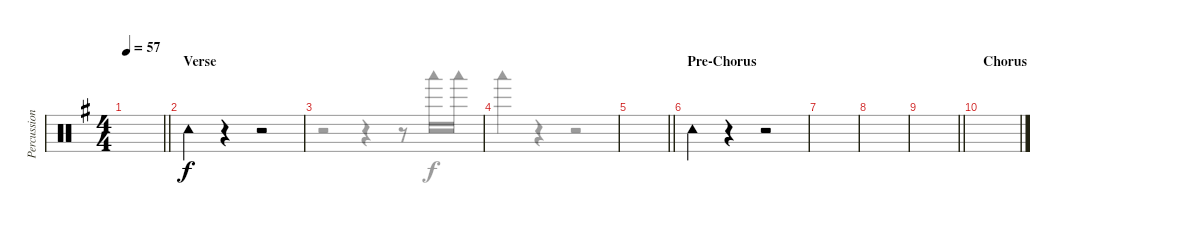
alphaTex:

\track ("Percussion 2" "Percussion") {instrument percussion}
\staff {score}
\articulation defaults
\voice
\ts (4 4)
\tempo 57
\clef neutral
\barLineRight lightlight
\ks g
|
\section ("" "Verse")
"Tambourine (hit)".4 r.4 r.2 |
|
|
\barLineRight lightlight
|
\section ("" "Pre-Chorus")
"Tambourine (hit)".4 r.4 r.2 |
|
|
\barLineRight lightlight
|
\section ("" "Chorus")
|
|
|
|
|
|
\voice
\clef neutral
\ottava regular
\simile none
\barLineRight lightlight
\ks g
|
|
r.2 r.4 r.8 "Woodblock low (hit)".16 "Woodblock low (hit)".16 |
"Woodblock low (hit)".4 r.4 r.2 |
\barLineRight lightlight
|
|
|
|
\barLineRight lightlight
|
|
|
|
|
|
|
